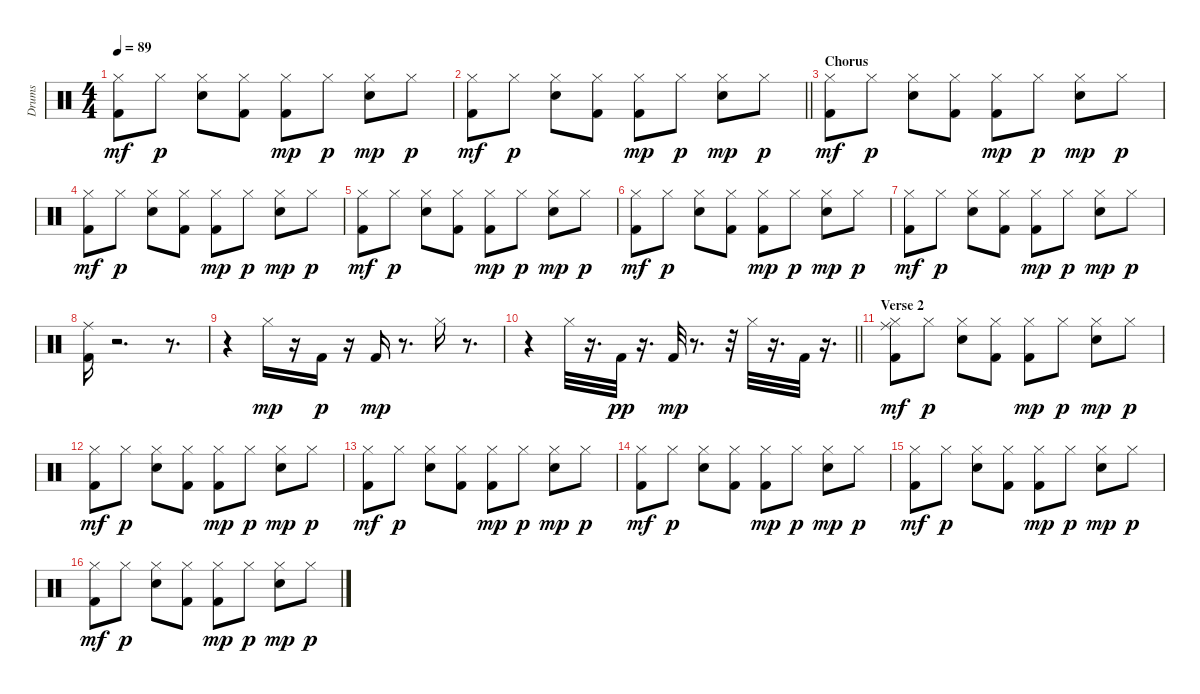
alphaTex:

\track ("Drums" "Drums") {instrument percussion}
\staff {score}
\articulation defaults
\ts (4 4)
\tempo 89
\clef neutral
\ks c
("Hi-Hat (closed)" "Kick (hit) 2").8{dy mf} "Hi-Hat (closed)".8{dy p} ("Snare (hit) 2" "Hi-Hat (closed)").8 ("Kick (hit) 2" "Hi-Hat (closed)").8 ("Kick (hit) 2" "Hi-Hat (closed)").8{dy mp} "Hi-Hat (closed)".8{dy p} ("Snare (hit) 2" "Hi-Hat (closed)").8{dy mp} "Hi-Hat (closed)".8{dy p} |
\barLineRight lightlight
("Hi-Hat (closed)" "Kick (hit) 2").8{dy mf} "Hi-Hat (closed)".8{dy p} ("Snare (hit) 2" "Hi-Hat (closed)").8 ("Kick (hit) 2" "Hi-Hat (closed)").8 ("Kick (hit) 2" "Hi-Hat (closed)").8{dy mp} "Hi-Hat (closed)".8{dy p} ("Snare (hit) 2" "Hi-Hat (closed)").8{dy mp} "Hi-Hat (closed)".8{dy p} |
\section ("" "Chorus")
("Hi-Hat (closed)" "Kick (hit) 2").8{dy mf} "Hi-Hat (closed)".8{dy p} ("Snare (hit) 2" "Hi-Hat (closed)").8 ("Kick (hit) 2" "Hi-Hat (closed)").8 ("Kick (hit) 2" "Hi-Hat (closed)").8{dy mp} "Hi-Hat (closed)".8{dy p} ("Snare (hit) 2" "Hi-Hat (closed)").8{dy mp} "Hi-Hat (closed)".8{dy p} |
("Hi-Hat (closed)" "Kick (hit) 2").8{dy mf} "Hi-Hat (closed)".8{dy p} ("Snare (hit) 2" "Hi-Hat (closed)").8 ("Kick (hit) 2" "Hi-Hat (closed)").8 ("Kick (hit) 2" "Hi-Hat (closed)").8{dy mp} "Hi-Hat (closed)".8{dy p} ("Snare (hit) 2" "Hi-Hat (closed)").8{dy mp} "Hi-Hat (closed)".8{dy p} |
("Hi-Hat (closed)" "Kick (hit) 2").8{dy mf} "Hi-Hat (closed)".8{dy p} ("Snare (hit) 2" "Hi-Hat (closed)").8 ("Kick (hit) 2" "Hi-Hat (closed)").8 ("Kick (hit) 2" "Hi-Hat (closed)").8{dy mp} "Hi-Hat (closed)".8{dy p} ("Snare (hit) 2" "Hi-Hat (closed)").8{dy mp} "Hi-Hat (closed)".8{dy p} |
("Hi-Hat (closed)" "Kick (hit) 2").8{dy mf} "Hi-Hat (closed)".8{dy p} ("Snare (hit) 2" "Hi-Hat (closed)").8 ("Kick (hit) 2" "Hi-Hat (closed)").8 ("Kick (hit) 2" "Hi-Hat (closed)").8{dy mp} "Hi-Hat (closed)".8{dy p} ("Snare (hit) 2" "Hi-Hat (closed)").8{dy mp} "Hi-Hat (closed)".8{dy p} |
("Hi-Hat (closed)" "Kick (hit) 2").8{dy mf} "Hi-Hat (closed)".8{dy p} ("Snare (hit) 2" "Hi-Hat (closed)").8 ("Kick (hit) 2" "Hi-Hat (closed)").8 ("Kick (hit) 2" "Hi-Hat (closed)").8{dy mp} "Hi-Hat (closed)".8{dy p} ("Snare (hit) 2" "Hi-Hat (closed)").8{dy mp} "Hi-Hat (closed)".8{dy p} |
("Ride (middle)" "Kick (hit) 2").16 r.2{d} r.8{d} |
r.4 "Hi-Hat (closed)".16{dy mp} r.16 "Kick (hit) 2".16{dy p} r.16 "Kick (hit) 2".16{dy mp} r.8{d} "Hi-Hat (closed)".16 r.8{d} |
\barLineRight lightlight
r.4 "Hi-Hat (closed)".32 r.16{d} "Kick (hit) 2".32{dy pp} r.16{d} "Kick (hit) 2".32{dy mp} r.8{d} r.32 "Hi-Hat (closed)".32 r.16{d} "Kick (hit) 2".32 r.16{d} |
\section ("" "Verse 2")
("Hi-Hat (closed)" "Kick (hit) 2" "Ride (middle)").8{dy mf} "Hi-Hat (closed)".8{dy p} ("Snare (hit) 2" "Hi-Hat (closed)").8 ("Kick (hit) 2" "Hi-Hat (closed)").8 ("Kick (hit) 2" "Hi-Hat (closed)").8{dy mp} "Hi-Hat (closed)".8{dy p} ("Snare (hit) 2" "Hi-Hat (closed)").8{dy mp} "Hi-Hat (closed)".8{dy p} |
("Hi-Hat (closed)" "Kick (hit) 2").8{dy mf} "Hi-Hat (closed)".8{dy p} ("Snare (hit) 2" "Hi-Hat (closed)").8 ("Kick (hit) 2" "Hi-Hat (closed)").8 ("Kick (hit) 2" "Hi-Hat (closed)").8{dy mp} "Hi-Hat (closed)".8{dy p} ("Snare (hit) 2" "Hi-Hat (closed)").8{dy mp} "Hi-Hat (closed)".8{dy p} |
("Hi-Hat (closed)" "Kick (hit) 2").8{dy mf} "Hi-Hat (closed)".8{dy p} ("Snare (hit) 2" "Hi-Hat (closed)").8 ("Kick (hit) 2" "Hi-Hat (closed)").8 ("Kick (hit) 2" "Hi-Hat (closed)").8{dy mp} "Hi-Hat (closed)".8{dy p} ("Snare (hit) 2" "Hi-Hat (closed)").8{dy mp} "Hi-Hat (closed)".8{dy p} |
("Hi-Hat (closed)" "Kick (hit) 2").8{dy mf} "Hi-Hat (closed)".8{dy p} ("Snare (hit) 2" "Hi-Hat (closed)").8 ("Kick (hit) 2" "Hi-Hat (closed)").8 ("Kick (hit) 2" "Hi-Hat (closed)").8{dy mp} "Hi-Hat (closed)".8{dy p} ("Snare (hit) 2" "Hi-Hat (closed)").8{dy mp} "Hi-Hat (closed)".8{dy p} |
("Hi-Hat (closed)" "Kick (hit) 2").8{dy mf} "Hi-Hat (closed)".8{dy p} ("Snare (hit) 2" "Hi-Hat (closed)").8 ("Kick (hit) 2" "Hi-Hat (closed)").8 ("Kick (hit) 2" "Hi-Hat (closed)").8{dy mp} "Hi-Hat (closed)".8{dy p} ("Snare (hit) 2" "Hi-Hat (closed)").8{dy mp} "Hi-Hat (closed)".8{dy p} |
("Hi-Hat (closed)" "Kick (hit) 2").8{dy mf} "Hi-Hat (closed)".8{dy p} ("Snare (hit) 2" "Hi-Hat (closed)").8 ("Kick (hit) 2" "Hi-Hat (closed)").8 ("Kick (hit) 2" "Hi-Hat (closed)").8{dy mp} "Hi-Hat (closed)".8{dy p} ("Snare (hit) 2" "Hi-Hat (closed)").8{dy mp} "Hi-Hat (closed)".8{dy p}
